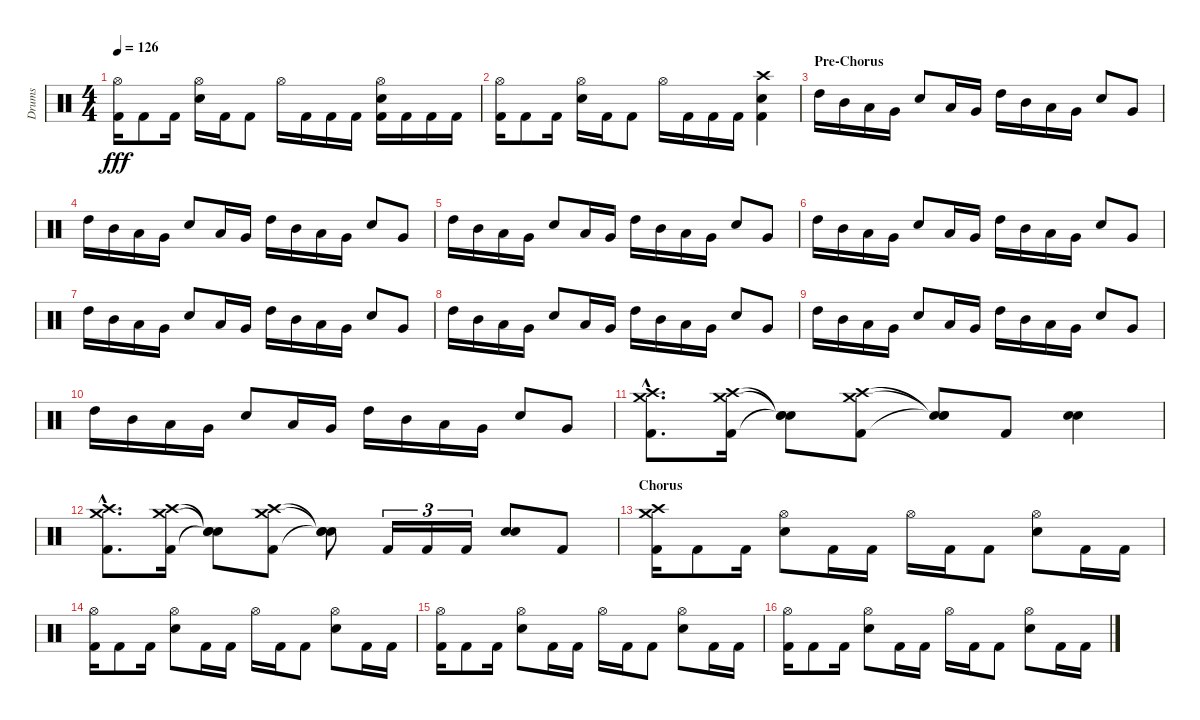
\track ("Drums" "Drums") {instrument percussion}
\staff {score}
\articulation defaults
\ts (4 4)
\tempo 126
\clef neutral
\ks c
("Hi-Hat (open)" "Kick (hit) 2").16{dy fff} "Kick (hit) 2".8 "Kick (hit) 2".16 ("Hi-Hat (open)" "Electric Snare (hit)").16 "Kick (hit) 2".16 "Kick (hit) 2".8 "Hi-Hat (open)".16 "Kick (hit) 2".16 "Kick (hit) 2".16 "Kick (hit) 2".16 ("Hi-Hat (open)" "Electric Snare (hit)" "Kick (hit) 2").16 "Kick (hit) 2".16 "Kick (hit) 2".16 "Kick (hit) 2".16 |
("Hi-Hat (open)" "Kick (hit) 2").16 "Kick (hit) 2".8 "Kick (hit) 2".16 ("Hi-Hat (open)" "Electric Snare (hit)").16 "Kick (hit) 2".16 "Kick (hit) 2".8 "Hi-Hat (open)".16 "Kick (hit) 2".16 "Kick (hit) 2".16 "Kick (hit) 2".16 ("Crash high (hit)" "Electric Snare (hit)" "Kick (hit) 2").4 |
\section ("" "Pre-Chorus")
"High Tom (hit)".16 "Mid Tom (hit)".16 "Low Tom (hit)".16 "Very Low Tom (hit)".16 "Electric Snare (hit)".8 "Low Tom (hit)".16 "Very Low Tom (hit)".16 "High Tom (hit)".16 "Mid Tom (hit)".16 "Low Tom (hit)".16 "Very Low Tom (hit)".16 "Electric Snare (hit)".8 "Very Low Tom (hit)".8 |
"High Tom (hit)".16 "Mid Tom (hit)".16 "Low Tom (hit)".16 "Very Low Tom (hit)".16 "Electric Snare (hit)".8 "Low Tom (hit)".16 "Very Low Tom (hit)".16 "High Tom (hit)".16 "Mid Tom (hit)".16 "Low Tom (hit)".16 "Very Low Tom (hit)".16 "Electric Snare (hit)".8 "Very Low Tom (hit)".8 |
"High Tom (hit)".16 "Mid Tom (hit)".16 "Low Tom (hit)".16 "Very Low Tom (hit)".16 "Electric Snare (hit)".8 "Low Tom (hit)".16 "Very Low Tom (hit)".16 "High Tom (hit)".16 "Mid Tom (hit)".16 "Low Tom (hit)".16 "Very Low Tom (hit)".16 "Electric Snare (hit)".8 "Very Low Tom (hit)".8 |
"High Tom (hit)".16 "Mid Tom (hit)".16 "Low Tom (hit)".16 "Very Low Tom (hit)".16 "Electric Snare (hit)".8 "Low Tom (hit)".16 "Very Low Tom (hit)".16 "High Tom (hit)".16 "Mid Tom (hit)".16 "Low Tom (hit)".16 "Very Low Tom (hit)".16 "Electric Snare (hit)".8 "Very Low Tom (hit)".8 |
"High Tom (hit)".16 "Mid Tom (hit)".16 "Low Tom (hit)".16 "Very Low Tom (hit)".16 "Electric Snare (hit)".8 "Low Tom (hit)".16 "Very Low Tom (hit)".16 "High Tom (hit)".16 "Mid Tom (hit)".16 "Low Tom (hit)".16 "Very Low Tom (hit)".16 "Electric Snare (hit)".8 "Very Low Tom (hit)".8 |
"High Tom (hit)".16 "Mid Tom (hit)".16 "Low Tom (hit)".16 "Very Low Tom (hit)".16 "Electric Snare (hit)".8 "Low Tom (hit)".16 "Very Low Tom (hit)".16 "High Tom (hit)".16 "Mid Tom (hit)".16 "Low Tom (hit)".16 "Very Low Tom (hit)".16 "Electric Snare (hit)".8 "Very Low Tom (hit)".8 |
"High Tom (hit)".16 "Mid Tom (hit)".16 "Low Tom (hit)".16 "Very Low Tom (hit)".16 "Electric Snare (hit)".8 "Low Tom (hit)".16 "Very Low Tom (hit)".16 "High Tom (hit)".16 "Mid Tom (hit)".16 "Low Tom (hit)".16 "Very Low Tom (hit)".16 "Electric Snare (hit)".8 "Very Low Tom (hit)".8 |
"High Tom (hit)".16 "Mid Tom (hit)".16 "Low Tom (hit)".16 "Very Low Tom (hit)".16 "Electric Snare (hit)".8 "Low Tom (hit)".16 "Very Low Tom (hit)".16 "High Tom (hit)".16 "Mid Tom (hit)".16 "Low Tom (hit)".16 "Very Low Tom (hit)".16 "Electric Snare (hit)".8 "Very Low Tom (hit)".8 |
("Crash high (hit)"{hac} "Crash medium (hit)"{hac} "Kick (hit) 2"{hac}).8{d} ("Crash high (hit)" "Crash medium (hit)" "Kick (hit) 2").16 ("Snare (hit)"{t} "Snare (hit)"{t} "Snare (hit)"{t}).8 ("Crash high (hit)" "Crash medium (hit)" "Kick (hit) 2").8 ("Snare (hit)"{t} "Snare (hit)"{t} "Snare (hit)"{t}).8 "Kick (hit) 2".8 ("Electric Snare (hit)" "Electric Snare (hit)").4 |
("Crash high (hit)"{hac} "Crash medium (hit)"{hac} "Kick (hit) 2"{hac}).8{d} ("Crash high (hit)" "Crash medium (hit)" "Kick (hit) 2").16 ("Snare (hit)"{t} "Snare (hit)"{t} "Snare (hit)"{t}).8 ("Crash high (hit)" "Crash medium (hit)" "Kick (hit) 2").8 ("Snare (hit)"{t} "Snare (hit)"{t} "Snare (hit)"{t}).8 "Kick (hit) 2".16{tu (3 2)} "Kick (hit) 2".16{tu (3 2)} "Kick (hit) 2".16{tu (3 2)} ("Electric Snare (hit)" "Electric Snare (hit)").8 "Kick (hit) 2".8 |
\section ("" "Chorus")
("Crash high (hit)" "Crash medium (hit)" "Kick (hit) 2").16 "Kick (hit) 2".8 "Kick (hit) 2".16 ("Hi-Hat (open)" "Electric Snare (hit)").8 "Kick (hit) 2".16 "Kick (hit) 2".16 "Hi-Hat (open)".16 "Kick (hit) 2".16 "Kick (hit) 2".8 ("Hi-Hat (open)" "Electric Snare (hit)").8 "Kick (hit) 2".16 "Kick (hit) 2".16 |
("Hi-Hat (open)" "Kick (hit) 2").16 "Kick (hit) 2".8 "Kick (hit) 2".16 ("Hi-Hat (open)" "Electric Snare (hit)").8 "Kick (hit) 2".16 "Kick (hit) 2".16 "Hi-Hat (open)".16 "Kick (hit) 2".16 "Kick (hit) 2".8 ("Hi-Hat (open)" "Electric Snare (hit)").8 "Kick (hit) 2".16 "Kick (hit) 2".16 |
("Hi-Hat (open)" "Kick (hit) 2").16 "Kick (hit) 2".8 "Kick (hit) 2".16 ("Hi-Hat (open)" "Electric Snare (hit)").8 "Kick (hit) 2".16 "Kick (hit) 2".16 "Hi-Hat (open)".16 "Kick (hit) 2".16 "Kick (hit) 2".8 ("Hi-Hat (open)" "Electric Snare (hit)").8 "Kick (hit) 2".16 "Kick (hit) 2".16 |
("Hi-Hat (open)" "Kick (hit) 2").16 "Kick (hit) 2".8 "Kick (hit) 2".16 ("Hi-Hat (open)" "Electric Snare (hit)").8 "Kick (hit) 2".16 "Kick (hit) 2".16 "Hi-Hat (open)".16 "Kick (hit) 2".16 "Kick (hit) 2".8 ("Hi-Hat (open)" "Electric Snare (hit)").8 "Kick (hit) 2".16 "Kick (hit) 2".16
